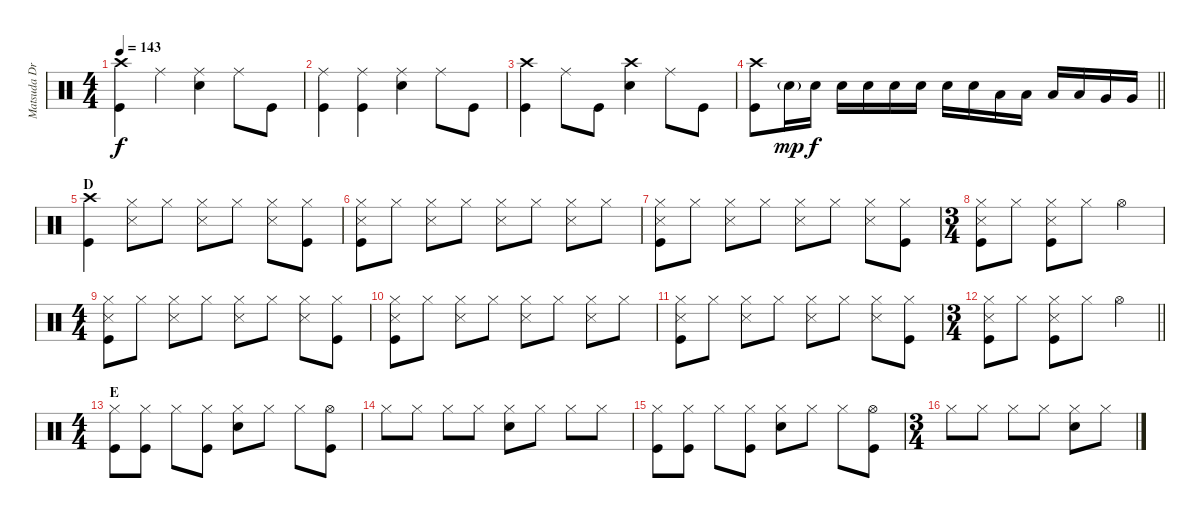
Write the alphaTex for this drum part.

\track ("Matsuda Drums" "Matsuda Dr") {instrument percussion}
\staff {score}
\articulation defaults
\ts (4 4)
\tempo 143
\clef neutral
\ks c
("Crash high (hit)" "Kick (hit)").4{dy f} "Ride (middle)".4 ("Ride (middle)" "Snare (hit) 2").4 "Ride (middle)".8 "Kick (hit)".8 |
("Ride (middle)" "Kick (hit)").4 ("Ride (middle)" "Kick (hit)").4 ("Ride (middle)" "Snare (hit) 2").4 "Ride (middle)".8 "Kick (hit)".8 |
("Crash high (hit)" "Kick (hit)").4 "Ride (middle)".8 "Kick (hit)".8 ("Crash high (hit)" "Snare (hit) 2").4 "Ride (middle)".8 "Kick (hit)".8 |
\barLineRight lightlight
("Crash high (hit)" "Kick (hit)").8 "Snare (hit) 2"{g}.16{dy mp} "Snare (hit) 2".16{dy f} "Snare (hit) 2".16 "Snare (hit) 2".16 "Snare (hit) 2".16 "Snare (hit) 2".16 "Snare (hit) 2".16 "Snare (hit) 2".16 "Low Tom (hit)".16 "Low Tom (hit)".16 "Low Tom (hit)".16 "Low Tom (hit)".16 "Very Low Tom (hit)".16 "Very Low Tom (hit)".16 |
\section ("" "D")
("Crash high (hit)" "Kick (hit)").4 ("Hi-Hat (closed)" "Snare (side stick) 3").8 "Hi-Hat (closed)".8 ("Hi-Hat (closed)" "Snare (side stick) 3").8 "Hi-Hat (closed)".8 ("Hi-Hat (closed)" "Snare (side stick) 3").8 ("Hi-Hat (closed)" "Kick (hit)").8 |
("Hi-Hat (closed)" "Snare (side stick) 3" "Kick (hit)").8 "Hi-Hat (closed)".8 ("Hi-Hat (closed)" "Snare (side stick) 3").8 "Hi-Hat (closed)".8 ("Hi-Hat (closed)" "Snare (side stick) 3").8 "Hi-Hat (closed)".8 ("Hi-Hat (closed)" "Snare (side stick) 3").8 "Hi-Hat (closed)".8 |
("Hi-Hat (closed)" "Snare (side stick) 3" "Kick (hit)").8 "Hi-Hat (closed)".8 ("Hi-Hat (closed)" "Snare (side stick) 3").8 "Hi-Hat (closed)".8 ("Hi-Hat (closed)" "Snare (side stick) 3").8 "Hi-Hat (closed)".8 ("Hi-Hat (closed)" "Snare (side stick) 3").8 ("Hi-Hat (closed)" "Kick (hit)").8 |
\ts (3 4)
("Hi-Hat (closed)" "Snare (side stick) 3" "Kick (hit)").8 "Hi-Hat (closed)".8 ("Hi-Hat (closed)" "Snare (side stick) 3" "Kick (hit)").8 "Hi-Hat (closed)".8 "Hi-Hat (open)".4 |
\ts (4 4)
("Hi-Hat (closed)" "Snare (side stick) 3" "Kick (hit)").8 "Hi-Hat (closed)".8 ("Hi-Hat (closed)" "Snare (side stick) 3").8 "Hi-Hat (closed)".8 ("Hi-Hat (closed)" "Snare (side stick) 3").8 "Hi-Hat (closed)".8 ("Hi-Hat (closed)" "Snare (side stick) 3").8 ("Hi-Hat (closed)" "Kick (hit)").8 |
("Hi-Hat (closed)" "Snare (side stick) 3" "Kick (hit)").8 "Hi-Hat (closed)".8 ("Hi-Hat (closed)" "Snare (side stick) 3").8 "Hi-Hat (closed)".8 ("Hi-Hat (closed)" "Snare (side stick) 3").8 "Hi-Hat (closed)".8 ("Hi-Hat (closed)" "Snare (side stick) 3").8 "Hi-Hat (closed)".8 |
("Hi-Hat (closed)" "Snare (side stick) 3" "Kick (hit)").8 "Hi-Hat (closed)".8 ("Hi-Hat (closed)" "Snare (side stick) 3").8 "Hi-Hat (closed)".8 ("Hi-Hat (closed)" "Snare (side stick) 3").8 "Hi-Hat (closed)".8 ("Hi-Hat (closed)" "Snare (side stick) 3").8 ("Hi-Hat (closed)" "Kick (hit)").8 |
\ts (3 4)
\barLineRight lightlight
("Hi-Hat (closed)" "Snare (side stick) 3" "Kick (hit)").8 "Hi-Hat (closed)".8 ("Hi-Hat (closed)" "Snare (side stick) 3" "Kick (hit)").8 "Hi-Hat (closed)".8 "Hi-Hat (open)".4 |
\ts (4 4)
\section ("" "E")
("Hi-Hat (closed)" "Kick (hit)").8 ("Hi-Hat (closed)" "Kick (hit)").8 "Hi-Hat (closed)".8 ("Hi-Hat (closed)" "Kick (hit)").8 ("Hi-Hat (closed)" "Snare (hit) 2").8 "Hi-Hat (closed)".8 "Hi-Hat (closed)".8 ("Hi-Hat (open)" "Kick (hit)").8 |
"Hi-Hat (closed)".8 "Hi-Hat (closed)".8 "Hi-Hat (closed)".8 "Hi-Hat (closed)".8 ("Hi-Hat (closed)" "Snare (hit) 2").8 "Hi-Hat (closed)".8 "Hi-Hat (closed)".8 "Hi-Hat (closed)".8 |
("Hi-Hat (closed)" "Kick (hit)").8 ("Hi-Hat (closed)" "Kick (hit)").8 "Hi-Hat (closed)".8 ("Hi-Hat (closed)" "Kick (hit)").8 ("Hi-Hat (closed)" "Snare (hit) 2").8 "Hi-Hat (closed)".8 "Hi-Hat (closed)".8 ("Hi-Hat (open)" "Kick (hit)").8 |
\ts (3 4)
"Hi-Hat (closed)".8 "Hi-Hat (closed)".8 "Hi-Hat (closed)".8 "Hi-Hat (closed)".8 ("Hi-Hat (closed)" "Snare (hit) 2").8 "Hi-Hat (closed)".8
